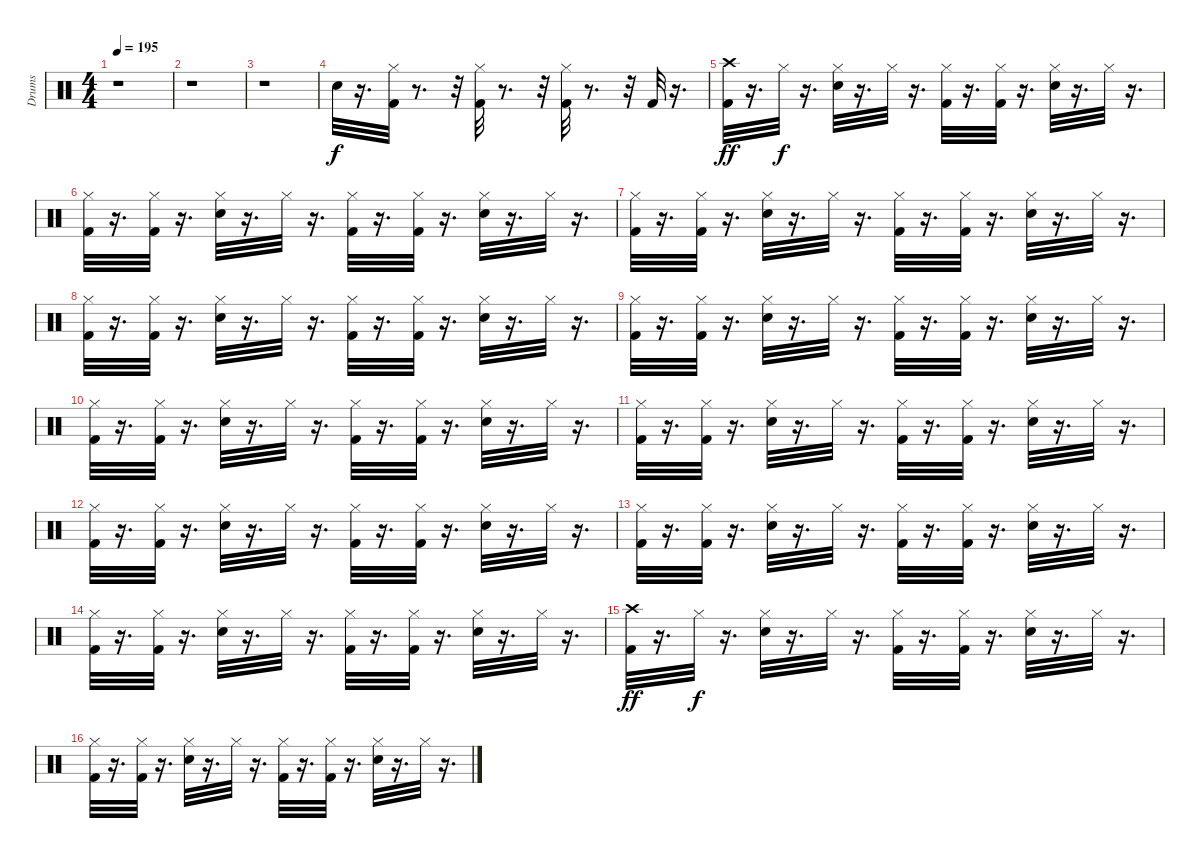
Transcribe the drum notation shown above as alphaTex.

\track ("Drums" "Drums") {instrument percussion}
\staff {score}
\articulation defaults
\ts (4 4)
\tempo 195
\clef neutral
\ks c
r.1{dy ff} |
r.1 |
r.1 |
"Snare (hit) 2".32{dy f} r.16{d} ("Hi-Hat (closed)" "Kick (hit) 2").32 r.8{d} r.32 ("Hi-Hat (closed)" "Kick (hit) 2").32 r.8{d} r.32 ("Hi-Hat (closed)" "Kick (hit) 2").32 r.8{d} r.32 "Kick (hit) 2".32 r.16{d} |
("Kick (hit) 2" "Crash high (hit)").32{dy ff} r.16{d} "Hi-Hat (closed)".32{dy f} r.16{d} ("Snare (hit) 2" "Hi-Hat (closed)").32 r.16{d} "Hi-Hat (closed)".32 r.16{d} ("Kick (hit) 2" "Hi-Hat (closed)").32 r.16{d} ("Kick (hit) 2" "Hi-Hat (closed)").32 r.16{d} ("Snare (hit) 2" "Hi-Hat (closed)").32 r.16{d} "Hi-Hat (closed)".32 r.16{d} |
("Kick (hit) 2" "Hi-Hat (closed)").32 r.16{d} ("Kick (hit) 2" "Hi-Hat (closed)").32 r.16{d} ("Snare (hit) 2" "Hi-Hat (closed)").32 r.16{d} "Hi-Hat (closed)".32 r.16{d} ("Kick (hit) 2" "Hi-Hat (closed)").32 r.16{d} ("Kick (hit) 2" "Hi-Hat (closed)").32 r.16{d} ("Snare (hit) 2" "Hi-Hat (closed)").32 r.16{d} "Hi-Hat (closed)".32 r.16{d} |
("Kick (hit) 2" "Hi-Hat (closed)").32 r.16{d} ("Kick (hit) 2" "Hi-Hat (closed)").32 r.16{d} ("Snare (hit) 2" "Hi-Hat (closed)").32 r.16{d} "Hi-Hat (closed)".32 r.16{d} ("Kick (hit) 2" "Hi-Hat (closed)").32 r.16{d} ("Kick (hit) 2" "Hi-Hat (closed)").32 r.16{d} ("Snare (hit) 2" "Hi-Hat (closed)").32 r.16{d} "Hi-Hat (closed)".32 r.16{d} |
("Kick (hit) 2" "Hi-Hat (closed)").32 r.16{d} ("Kick (hit) 2" "Hi-Hat (closed)").32 r.16{d} ("Snare (hit) 2" "Hi-Hat (closed)").32 r.16{d} "Hi-Hat (closed)".32 r.16{d} ("Kick (hit) 2" "Hi-Hat (closed)").32 r.16{d} ("Kick (hit) 2" "Hi-Hat (closed)").32 r.16{d} ("Snare (hit) 2" "Hi-Hat (closed)").32 r.16{d} "Hi-Hat (closed)".32 r.16{d} |
("Kick (hit) 2" "Hi-Hat (closed)").32 r.16{d} ("Kick (hit) 2" "Hi-Hat (closed)").32 r.16{d} ("Snare (hit) 2" "Hi-Hat (closed)").32 r.16{d} "Hi-Hat (closed)".32 r.16{d} ("Kick (hit) 2" "Hi-Hat (closed)").32 r.16{d} ("Kick (hit) 2" "Hi-Hat (closed)").32 r.16{d} ("Snare (hit) 2" "Hi-Hat (closed)").32 r.16{d} "Hi-Hat (closed)".32 r.16{d} |
("Kick (hit) 2" "Hi-Hat (closed)").32 r.16{d} ("Kick (hit) 2" "Hi-Hat (closed)").32 r.16{d} ("Snare (hit) 2" "Hi-Hat (closed)").32 r.16{d} "Hi-Hat (closed)".32 r.16{d} ("Kick (hit) 2" "Hi-Hat (closed)").32 r.16{d} ("Hi-Hat (closed)" "Kick (hit) 2").32 r.16{d} ("Snare (hit) 2" "Hi-Hat (closed)").32 r.16{d} "Hi-Hat (closed)".32 r.16{d} |
("Kick (hit) 2" "Hi-Hat (closed)").32 r.16{d} ("Kick (hit) 2" "Hi-Hat (closed)").32 r.16{d} ("Snare (hit) 2" "Hi-Hat (closed)").32 r.16{d} "Hi-Hat (closed)".32 r.16{d} ("Kick (hit) 2" "Hi-Hat (closed)").32 r.16{d} ("Kick (hit) 2" "Hi-Hat (closed)").32 r.16{d} ("Snare (hit) 2" "Hi-Hat (closed)").32 r.16{d} "Hi-Hat (closed)".32 r.16{d} |
("Kick (hit) 2" "Hi-Hat (closed)").32 r.16{d} ("Kick (hit) 2" "Hi-Hat (closed)").32 r.16{d} ("Snare (hit) 2" "Hi-Hat (closed)").32 r.16{d} "Hi-Hat (closed)".32 r.16{d} ("Kick (hit) 2" "Hi-Hat (closed)").32 r.16{d} ("Kick (hit) 2" "Hi-Hat (closed)").32 r.16{d} ("Snare (hit) 2" "Hi-Hat (closed)").32 r.16{d} "Hi-Hat (closed)".32 r.16{d} |
("Kick (hit) 2" "Hi-Hat (closed)").32 r.16{d} ("Kick (hit) 2" "Hi-Hat (closed)").32 r.16{d} ("Snare (hit) 2" "Hi-Hat (closed)").32 r.16{d} "Hi-Hat (closed)".32 r.16{d} ("Kick (hit) 2" "Hi-Hat (closed)").32 r.16{d} ("Kick (hit) 2" "Hi-Hat (closed)").32 r.16{d} ("Snare (hit) 2" "Hi-Hat (closed)").32 r.16{d} "Hi-Hat (closed)".32 r.16{d} |
("Kick (hit) 2" "Hi-Hat (closed)").32 r.16{d} ("Kick (hit) 2" "Hi-Hat (closed)").32 r.16{d} ("Snare (hit) 2" "Hi-Hat (closed)").32 r.16{d} "Hi-Hat (closed)".32 r.16{d} ("Kick (hit) 2" "Hi-Hat (closed)").32 r.16{d} ("Kick (hit) 2" "Hi-Hat (closed)").32 r.16{d} ("Snare (hit) 2" "Hi-Hat (closed)").32 r.16{d} "Hi-Hat (closed)".32 r.16{d} |
("Kick (hit) 2" "Crash high (hit)").32{dy ff} r.16{d} "Hi-Hat (closed)".32{dy f} r.16{d} ("Snare (hit) 2" "Hi-Hat (closed)").32 r.16{d} "Hi-Hat (closed)".32 r.16{d} ("Kick (hit) 2" "Hi-Hat (closed)").32 r.16{d} ("Kick (hit) 2" "Hi-Hat (closed)").32 r.16{d} ("Snare (hit) 2" "Hi-Hat (closed)").32 r.16{d} "Hi-Hat (closed)".32 r.16{d} |
("Hi-Hat (closed)" "Kick (hit) 2").32 r.16{d} ("Hi-Hat (closed)" "Kick (hit) 2").32 r.16{d} ("Hi-Hat (closed)" "Snare (hit) 2").32 r.16{d} "Hi-Hat (closed)".32 r.16{d} ("Hi-Hat (closed)" "Kick (hit) 2").32 r.16{d} ("Hi-Hat (closed)" "Kick (hit) 2").32 r.16{d} ("Hi-Hat (closed)" "Snare (hit) 2").32 r.16{d} "Hi-Hat (closed)".32 r.16{d}
